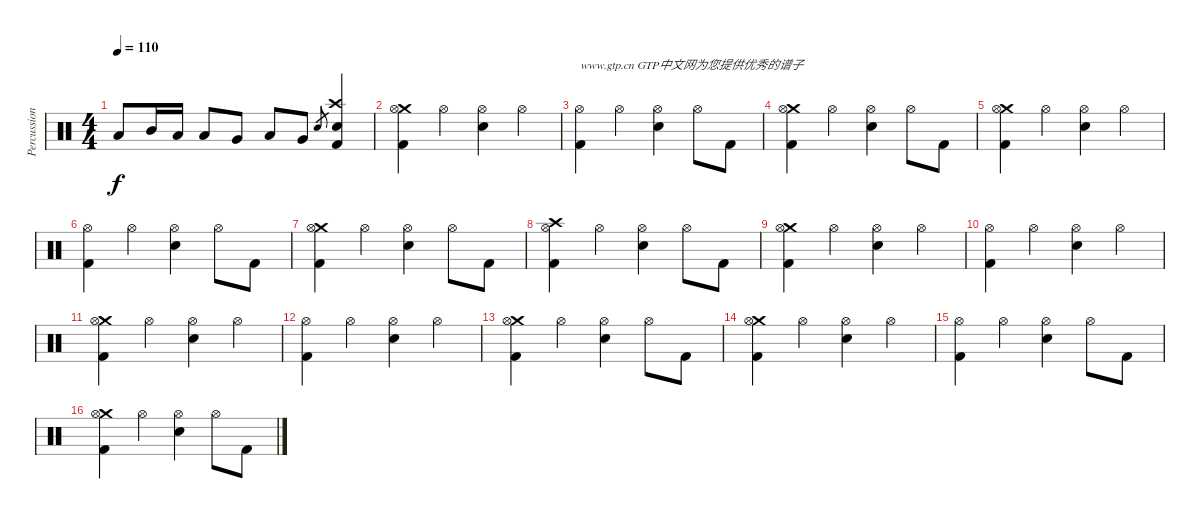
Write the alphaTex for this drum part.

\track ("Percussion" "Percussion") {instrument percussion}
\staff {score}
\articulation defaults
\ts (4 4)
\tempo 110
\clef neutral
\ks c "Low Tom (hit)".8{dy f} "Mid Tom (hit)".16 "Low Tom (hit)".16 "Low Tom (hit)".8 "Very Low Tom (hit)".8 "Low Floor Tom (hit)".8 "Very Low Tom (hit)".8 "Electric Snare (hit)".8{gr}
("Crash high (hit)" "Electric Snare (hit)" "Kick (hit) 2").4 |
("Crash medium (hit)" "Hi-Hat (open)" "Kick (hit) 2").4 "Hi-Hat (open)".4 ("Hi-Hat (open)" "Electric Snare (hit)").4 "Hi-Hat (open)".4 |
("Hi-Hat (open)" "Kick (hit) 2").4{txt "www.gtp.cn GTP中文网为您提供优秀的谱子"} "Hi-Hat (open)".4 ("Hi-Hat (open)" "Electric Snare (hit)").4 "Hi-Hat (open)".8 "Kick (hit) 2".8 |
("Crash medium (hit)" "Hi-Hat (open)" "Kick (hit) 2").4 "Hi-Hat (open)".4 ("Hi-Hat (open)" "Electric Snare (hit)").4 "Hi-Hat (open)".8 "Kick (hit) 2".8 |
("Crash medium (hit)" "Hi-Hat (open)" "Kick (hit) 2").4 "Hi-Hat (open)".4 ("Hi-Hat (open)" "Electric Snare (hit)").4 "Hi-Hat (open)".4 |
("Hi-Hat (open)" "Kick (hit) 2").4 "Hi-Hat (open)".4 ("Hi-Hat (open)" "Electric Snare (hit)").4 "Hi-Hat (open)".8 "Kick (hit) 2".8 |
("Crash medium (hit)" "Hi-Hat (open)" "Kick (hit) 2").4 "Hi-Hat (open)".4 ("Hi-Hat (open)" "Electric Snare (hit)").4 "Hi-Hat (open)".8 "Kick (hit) 2".8 |
("Crash high (hit)" "Hi-Hat (open)" "Kick (hit) 2").4 "Hi-Hat (open)".4 ("Hi-Hat (open)" "Electric Snare (hit)").4 "Hi-Hat (open)".8 "Kick (hit) 2".8 |
("Crash medium (hit)" "Hi-Hat (open)" "Kick (hit) 2").4 "Hi-Hat (open)".4 ("Hi-Hat (open)" "Electric Snare (hit)").4 "Hi-Hat (open)".4 |
("Hi-Hat (open)" "Kick (hit) 2").4 "Hi-Hat (open)".4 ("Hi-Hat (open)" "Electric Snare (hit)").4 "Hi-Hat (open)".4 |
("Crash medium (hit)" "Hi-Hat (open)" "Kick (hit) 2").4 "Hi-Hat (open)".4 ("Hi-Hat (open)" "Electric Snare (hit)").4 "Hi-Hat (open)".4 |
("Hi-Hat (open)" "Kick (hit) 2").4 "Hi-Hat (open)".4 ("Hi-Hat (open)" "Electric Snare (hit)").4 "Hi-Hat (open)".4 |
("Crash medium (hit)" "Hi-Hat (open)" "Kick (hit) 2").4 "Hi-Hat (open)".4 ("Hi-Hat (open)" "Electric Snare (hit)").4 "Hi-Hat (open)".8 "Kick (hit) 2".8 |
("Crash medium (hit)" "Hi-Hat (open)" "Kick (hit) 2").4 "Hi-Hat (open)".4 ("Hi-Hat (open)" "Electric Snare (hit)").4 "Hi-Hat (open)".4 |
("Hi-Hat (open)" "Kick (hit) 2").4 "Hi-Hat (open)".4 ("Hi-Hat (open)" "Electric Snare (hit)").4 "Hi-Hat (open)".8 "Kick (hit) 2".8 |
("Crash medium (hit)" "Hi-Hat (open)" "Kick (hit) 2").4 "Hi-Hat (open)".4 ("Hi-Hat (open)" "Electric Snare (hit)").4 "Hi-Hat (open)".8 "Kick (hit) 2".8
